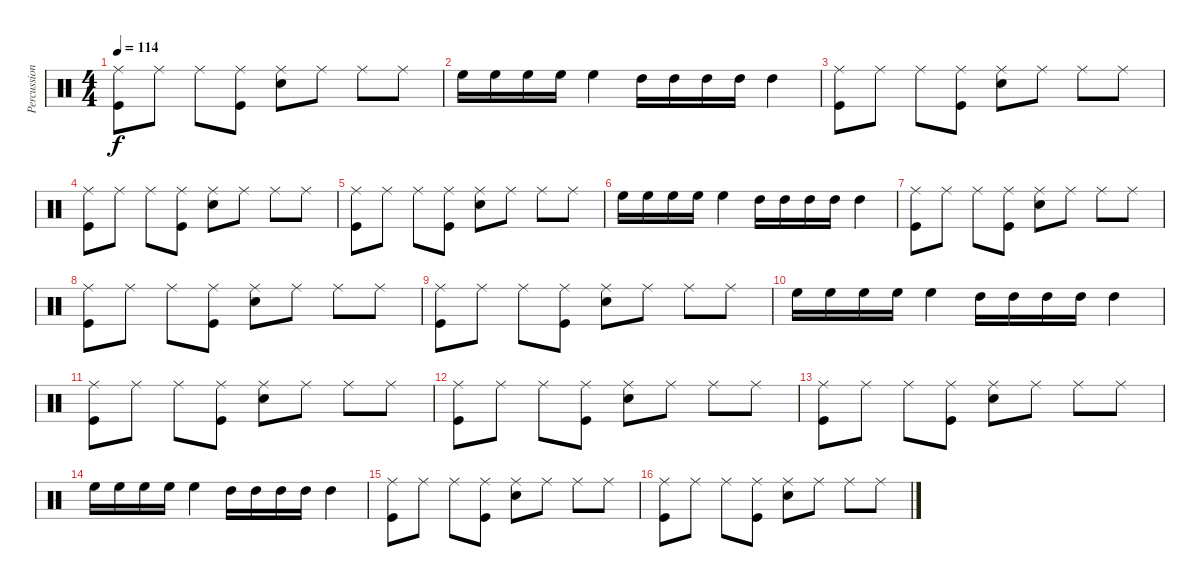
\track ("Percussion" "Percussion") {instrument percussion}
\staff {score}
\articulation defaults
\ts (4 4)
\tempo 114
\clef neutral
\ks c
("Ride (middle)" "Kick (hit)").8{dy f} "Ride (middle)".8 "Ride (middle)".8 ("Ride (middle)" "Kick (hit)").8 ("Ride (middle)" "Snare (hit) 2").8 "Ride (middle)".8 "Ride (middle)".8 "Ride (middle)".8 |
"High Floor Tom (hit)".16 "High Floor Tom (hit)".16 "High Floor Tom (hit)".16 "High Floor Tom (hit)".16 "High Floor Tom (hit)".4 "High Tom (hit)".16 "High Tom (hit)".16 "High Tom (hit)".16 "High Tom (hit)".16 "High Tom (hit)".4 |
("Ride (middle)" "Kick (hit)").8 "Ride (middle)".8 "Ride (middle)".8 ("Ride (middle)" "Kick (hit)").8 ("Ride (middle)" "Snare (hit) 2").8 "Ride (middle)".8 "Ride (middle)".8 "Ride (middle)".8 |
("Ride (middle)" "Kick (hit)").8 "Ride (middle)".8 "Ride (middle)".8 ("Ride (middle)" "Kick (hit)").8 ("Ride (middle)" "Snare (hit) 2").8 "Ride (middle)".8 "Ride (middle)".8 "Ride (middle)".8 |
("Ride (middle)" "Kick (hit)").8 "Ride (middle)".8 "Ride (middle)".8 ("Ride (middle)" "Kick (hit)").8 ("Ride (middle)" "Snare (hit) 2").8 "Ride (middle)".8 "Ride (middle)".8 "Ride (middle)".8 |
"High Floor Tom (hit)".16 "High Floor Tom (hit)".16 "High Floor Tom (hit)".16 "High Floor Tom (hit)".16 "High Floor Tom (hit)".4 "High Tom (hit)".16 "High Tom (hit)".16 "High Tom (hit)".16 "High Tom (hit)".16 "High Tom (hit)".4 |
("Ride (middle)" "Kick (hit)").8 "Ride (middle)".8 "Ride (middle)".8 ("Ride (middle)" "Kick (hit)").8 ("Ride (middle)" "Snare (hit) 2").8 "Ride (middle)".8 "Ride (middle)".8 "Ride (middle)".8 |
("Ride (middle)" "Kick (hit)").8 "Ride (middle)".8 "Ride (middle)".8 ("Ride (middle)" "Kick (hit)").8 ("Ride (middle)" "Snare (hit) 2").8 "Ride (middle)".8 "Ride (middle)".8 "Ride (middle)".8 |
("Ride (middle)" "Kick (hit)").8 "Ride (middle)".8 "Ride (middle)".8 ("Ride (middle)" "Kick (hit)").8 ("Ride (middle)" "Snare (hit) 2").8 "Ride (middle)".8 "Ride (middle)".8 "Ride (middle)".8 |
"High Floor Tom (hit)".16 "High Floor Tom (hit)".16 "High Floor Tom (hit)".16 "High Floor Tom (hit)".16 "High Floor Tom (hit)".4 "High Tom (hit)".16 "High Tom (hit)".16 "High Tom (hit)".16 "High Tom (hit)".16 "High Tom (hit)".4 |
("Ride (middle)" "Kick (hit)").8 "Ride (middle)".8 "Ride (middle)".8 ("Ride (middle)" "Kick (hit)").8 ("Ride (middle)" "Snare (hit) 2").8 "Ride (middle)".8 "Ride (middle)".8 "Ride (middle)".8 |
("Ride (middle)" "Kick (hit)").8 "Ride (middle)".8 "Ride (middle)".8 ("Ride (middle)" "Kick (hit)").8 ("Ride (middle)" "Snare (hit) 2").8 "Ride (middle)".8 "Ride (middle)".8 "Ride (middle)".8 |
("Ride (middle)" "Kick (hit)").8 "Ride (middle)".8 "Ride (middle)".8 ("Ride (middle)" "Kick (hit)").8 ("Ride (middle)" "Snare (hit) 2").8 "Ride (middle)".8 "Ride (middle)".8 "Ride (middle)".8 |
"High Floor Tom (hit)".16 "High Floor Tom (hit)".16 "High Floor Tom (hit)".16 "High Floor Tom (hit)".16 "High Floor Tom (hit)".4 "High Tom (hit)".16 "High Tom (hit)".16 "High Tom (hit)".16 "High Tom (hit)".16 "High Tom (hit)".4 |
("Ride (middle)" "Kick (hit)").8 "Ride (middle)".8 "Ride (middle)".8 ("Ride (middle)" "Kick (hit)").8 ("Ride (middle)" "Snare (hit) 2").8 "Ride (middle)".8 "Ride (middle)".8 "Ride (middle)".8 |
("Ride (middle)" "Kick (hit)").8 "Ride (middle)".8 "Ride (middle)".8 ("Ride (middle)" "Kick (hit)").8 ("Ride (middle)" "Snare (hit) 2").8 "Ride (middle)".8 "Ride (middle)".8 "Ride (middle)".8
